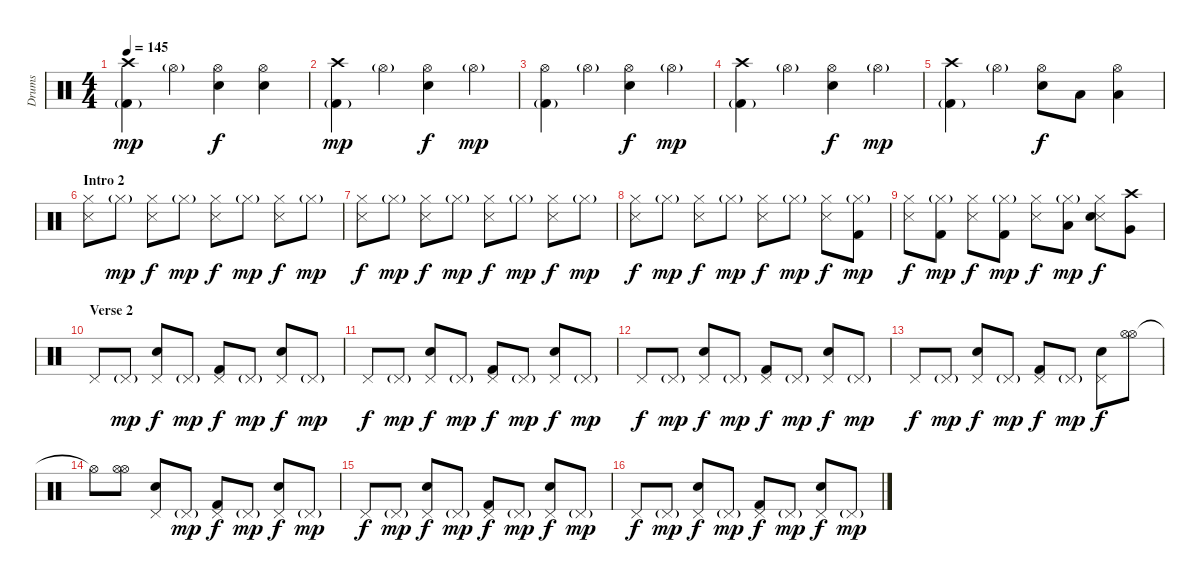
\track ("Drums" "Drums") {instrument percussion}
\staff {score}
\articulation defaults
\ts (4 4)
\tempo 145
\clef neutral
\ks c
("Crash high (hit)" "Kick (hit) 2"{g}).4{dy mp} "Hi-Hat (open)"{g}.4 ("Hi-Hat (open)" "Electric Snare (hit)").4{dy f} ("Hi-Hat (open)" "Electric Snare (hit)").4 |
("Crash high (hit)" "Kick (hit) 2"{g}).4{dy mp} "Hi-Hat (open)"{g}.4 ("Hi-Hat (open)" "Electric Snare (hit)").4{dy f} "Hi-Hat (open)"{g}.4{dy mp} |
("Hi-Hat (open)" "Kick (hit) 2"{g}).4 "Hi-Hat (open)"{g}.4 ("Hi-Hat (open)" "Electric Snare (hit)").4{dy f} "Hi-Hat (open)"{g}.4{dy mp} |
("Crash high (hit)" "Kick (hit) 2"{g}).4 "Hi-Hat (open)"{g}.4 ("Hi-Hat (open)" "Electric Snare (hit)").4{dy f} "Hi-Hat (open)"{g}.4{dy mp} |
("Crash high (hit)" "Kick (hit) 2"{g}).4 "Hi-Hat (open)"{g}.4 ("Hi-Hat (open)" "Electric Snare (hit)").8{dy f} "Low Floor Tom (hit)".8 ("Hi-Hat (open)" "Low Floor Tom (hit)").4 |
\section ("" "Intro 2")
("Hi-Hat (closed)" "Snare (side stick) 3").8 "Hi-Hat (closed)"{g}.8{dy mp} ("Hi-Hat (closed)" "Snare (side stick) 3").8{dy f} "Hi-Hat (closed)"{g}.8{dy mp} ("Hi-Hat (closed)" "Snare (side stick) 3").8{dy f} "Hi-Hat (closed)"{g}.8{dy mp} ("Hi-Hat (closed)" "Snare (side stick) 3").8{dy f} "Hi-Hat (closed)"{g}.8{dy mp} |
("Hi-Hat (closed)" "Snare (side stick) 3").8{dy f} "Hi-Hat (closed)"{g}.8{dy mp} ("Hi-Hat (closed)" "Snare (side stick) 3").8{dy f} "Hi-Hat (closed)"{g}.8{dy mp} ("Hi-Hat (closed)" "Snare (side stick) 3").8{dy f} "Hi-Hat (closed)"{g}.8{dy mp} ("Hi-Hat (closed)" "Snare (side stick) 3").8{dy f} "Hi-Hat (closed)"{g}.8{dy mp} |
("Hi-Hat (closed)" "Snare (side stick) 3").8{dy f} "Hi-Hat (closed)"{g}.8{dy mp} ("Hi-Hat (closed)" "Snare (side stick) 3").8{dy f} "Hi-Hat (closed)"{g}.8{dy mp} ("Hi-Hat (closed)" "Snare (side stick) 3").8{dy f} "Hi-Hat (closed)"{g}.8{dy mp} ("Hi-Hat (closed)" "Snare (side stick) 3").8{dy f} ("Hi-Hat (closed)"{g} "Kick (hit) 2").8{dy mp} |
("Hi-Hat (closed)" "Snare (side stick) 3").8{dy f} ("Hi-Hat (closed)"{g} "Kick (hit) 2").8{dy mp} ("Hi-Hat (closed)" "Snare (side stick) 3").8{dy f} ("Hi-Hat (closed)"{g} "Kick (hit) 2").8{dy mp} ("Hi-Hat (closed)" "Snare (side stick) 3").8{dy f} ("Hi-Hat (closed)"{g} "Low Tom (hit)").8{dy mp} ("Hi-Hat (closed)" "Snare (side stick) 3" "Electric Snare (hit)").8{dy f} ("Crash high (hit)" "Very Low Tom (hit)").8 |
\section ("" "Verse 2")
"Pedal Hi-Hat (hit)".8 "Pedal Hi-Hat (hit)"{g}.8{dy mp} ("Pedal Hi-Hat (hit)" "Electric Snare (hit)").8{dy f} "Pedal Hi-Hat (hit)"{g}.8{dy mp} ("Pedal Hi-Hat (hit)" "Kick (hit) 2").8{dy f} "Pedal Hi-Hat (hit)"{g}.8{dy mp} ("Pedal Hi-Hat (hit)" "Electric Snare (hit)").8{dy f} "Pedal Hi-Hat (hit)"{g}.8{dy mp} |
"Pedal Hi-Hat (hit)".8{dy f} "Pedal Hi-Hat (hit)"{g}.8{dy mp} ("Pedal Hi-Hat (hit)" "Electric Snare (hit)").8{dy f} "Pedal Hi-Hat (hit)"{g}.8{dy mp} ("Pedal Hi-Hat (hit)" "Kick (hit) 2").8{dy f} "Pedal Hi-Hat (hit)"{g}.8{dy mp} ("Pedal Hi-Hat (hit)" "Electric Snare (hit)").8{dy f} "Pedal Hi-Hat (hit)"{g}.8{dy mp} |
"Pedal Hi-Hat (hit)".8{dy f} "Pedal Hi-Hat (hit)"{g}.8{dy mp} ("Pedal Hi-Hat (hit)" "Electric Snare (hit)").8{dy f} "Pedal Hi-Hat (hit)"{g}.8{dy mp} ("Pedal Hi-Hat (hit)" "Kick (hit) 2").8{dy f} "Pedal Hi-Hat (hit)"{g}.8{dy mp} ("Pedal Hi-Hat (hit)" "Electric Snare (hit)").8{dy f} "Pedal Hi-Hat (hit)"{g}.8{dy mp} |
"Pedal Hi-Hat (hit)".8{dy f} "Pedal Hi-Hat (hit)"{g}.8{dy mp} ("Pedal Hi-Hat (hit)" "Electric Snare (hit)").8{dy f} "Pedal Hi-Hat (hit)"{g}.8{dy mp} ("Pedal Hi-Hat (hit)" "Kick (hit) 2").8{dy f} "Pedal Hi-Hat (hit)"{g}.8{dy mp} ("Pedal Hi-Hat (hit)" "Electric Snare (hit)").8{dy f} ("Hi-Hat (open)" "Hi-Hat (open)").8 |
"Hi-Hat (open)"{t}.8 ("Hi-Hat (open)" "Hi-Hat (open)").8 ("Pedal Hi-Hat (hit)" "Electric Snare (hit)").8 "Pedal Hi-Hat (hit)"{g}.8{dy mp} ("Pedal Hi-Hat (hit)" "Kick (hit) 2").8{dy f} "Pedal Hi-Hat (hit)"{g}.8{dy mp} ("Pedal Hi-Hat (hit)" "Electric Snare (hit)").8{dy f} "Pedal Hi-Hat (hit)"{g}.8{dy mp} |
"Pedal Hi-Hat (hit)".8{dy f} "Pedal Hi-Hat (hit)"{g}.8{dy mp} ("Pedal Hi-Hat (hit)" "Electric Snare (hit)").8{dy f} "Pedal Hi-Hat (hit)"{g}.8{dy mp} ("Pedal Hi-Hat (hit)" "Kick (hit) 2").8{dy f} "Pedal Hi-Hat (hit)"{g}.8{dy mp} ("Pedal Hi-Hat (hit)" "Electric Snare (hit)").8{dy f} "Pedal Hi-Hat (hit)"{g}.8{dy mp} |
"Pedal Hi-Hat (hit)".8{dy f} "Pedal Hi-Hat (hit)"{g}.8{dy mp} ("Pedal Hi-Hat (hit)" "Electric Snare (hit)").8{dy f} "Pedal Hi-Hat (hit)"{g}.8{dy mp} ("Pedal Hi-Hat (hit)" "Kick (hit) 2").8{dy f} "Pedal Hi-Hat (hit)"{g}.8{dy mp} ("Pedal Hi-Hat (hit)" "Electric Snare (hit)").8{dy f} "Pedal Hi-Hat (hit)"{g}.8{dy mp}
